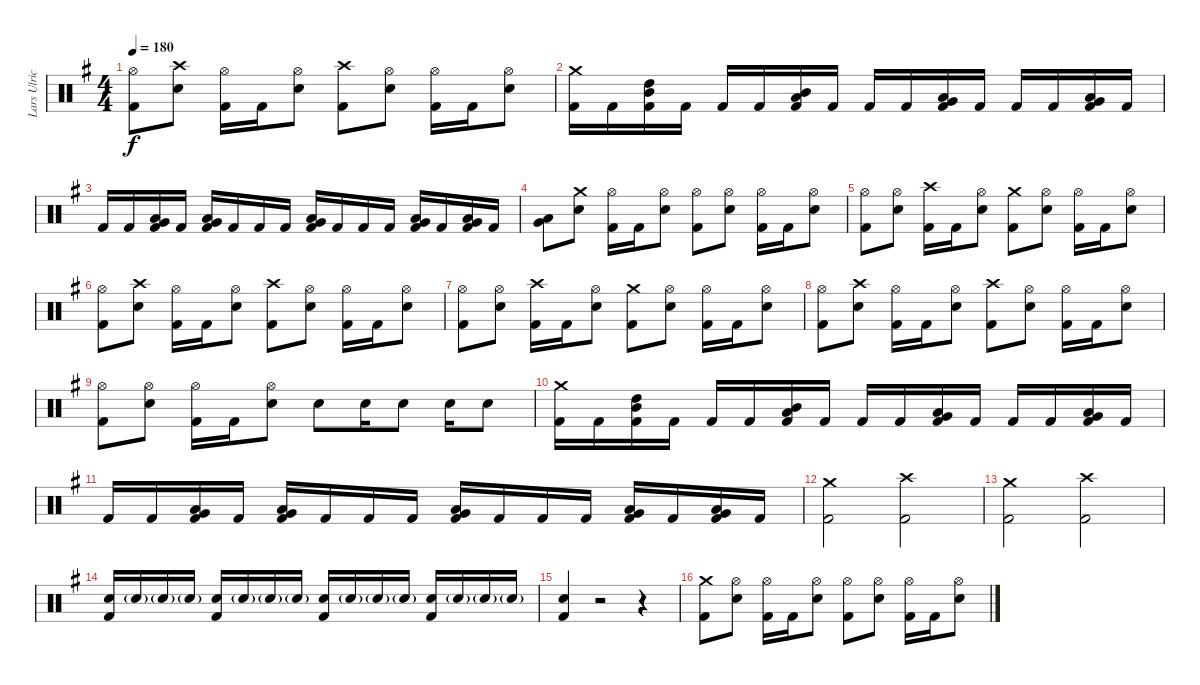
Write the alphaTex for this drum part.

\track ("Lars Ulrich" "Lars Ulric") {instrument percussion}
\staff {score}
\articulation defaults
\ts (4 4)
\tempo 180
\clef neutral
\ks eminor
("Hi-Hat (open)" "Kick (hit) 2").8{dy f} ("Crash high (hit)" "Snare (hit) 2").8 ("Hi-Hat (open)" "Kick (hit) 2").16 "Kick (hit) 2".16 ("Hi-Hat (open)" "Snare (hit) 2").8 ("Crash high (hit)" "Kick (hit) 2").8 ("Hi-Hat (open)" "Snare (hit) 2").8 ("Hi-Hat (open)" "Kick (hit) 2").16 "Kick (hit) 2".16 ("Hi-Hat (open)" "Snare (hit) 2").8 |
("Crash medium (hit)" "Kick (hit) 2").16 "Kick (hit) 2".16 ("High Tom (hit)" "Mid Tom (hit)" "Kick (hit) 2").16 "Kick (hit) 2".16 "Kick (hit) 2".16 "Kick (hit) 2".16 ("Mid Tom (hit)" "Low Tom (hit)" "Kick (hit) 2").16 "Kick (hit) 2".16 "Kick (hit) 2".16 "Kick (hit) 2".16 ("Low Tom (hit)" "Very Low Tom (hit)" "Kick (hit) 2").16 "Kick (hit) 2".16 "Kick (hit) 2".16 "Kick (hit) 2".16 ("Very Low Tom (hit)" "Low Floor Tom (hit)" "Kick (hit) 2").16 "Kick (hit) 2".16 |
"Kick (hit) 2".16 "Kick (hit) 2".16 ("Very Low Tom (hit)" "Low Floor Tom (hit)" "Kick (hit) 2").16 "Kick (hit) 2".16 ("Very Low Tom (hit)" "Low Floor Tom (hit)" "Kick (hit) 2").16 "Kick (hit) 2".16 "Kick (hit) 2".16 "Kick (hit) 2".16 ("Very Low Tom (hit)" "Low Floor Tom (hit)" "Kick (hit) 2").16 "Kick (hit) 2".16 "Kick (hit) 2".16 "Kick (hit) 2".16 ("Very Low Tom (hit)" "Low Floor Tom (hit)" "Kick (hit) 2").16 "Kick (hit) 2".16 ("Very Low Tom (hit)" "Low Floor Tom (hit)" "Kick (hit) 2").16 "Kick (hit) 2".16 |
("Very Low Tom (hit)" "Low Floor Tom (hit)").8 ("Crash medium (hit)" "Snare (hit) 2").8 ("Hi-Hat (open)" "Kick (hit) 2").16 "Kick (hit) 2".16 ("Hi-Hat (open)" "Snare (hit) 2").8 ("Hi-Hat (open)" "Kick (hit) 2").8 ("Hi-Hat (open)" "Snare (hit) 2").8 ("Hi-Hat (open)" "Kick (hit) 2").16 "Kick (hit) 2".16 ("Hi-Hat (open)" "Snare (hit) 2").8 |
("Hi-Hat (open)" "Kick (hit) 2").8 ("Hi-Hat (open)" "Snare (hit) 2").8 ("Crash high (hit)" "Kick (hit) 2").16 "Kick (hit) 2".16 ("Hi-Hat (open)" "Snare (hit) 2").8 ("Crash medium (hit)" "Kick (hit) 2").8 ("Hi-Hat (open)" "Snare (hit) 2").8 ("Hi-Hat (open)" "Kick (hit) 2").16 "Kick (hit) 2".16 ("Hi-Hat (open)" "Snare (hit) 2").8 |
("Hi-Hat (open)" "Kick (hit) 2").8 ("Crash high (hit)" "Snare (hit) 2").8 ("Hi-Hat (open)" "Kick (hit) 2").16 "Kick (hit) 2".16 ("Hi-Hat (open)" "Snare (hit) 2").8 ("Crash high (hit)" "Kick (hit) 2").8 ("Hi-Hat (open)" "Snare (hit) 2").8 ("Hi-Hat (open)" "Kick (hit) 2").16 "Kick (hit) 2".16 ("Hi-Hat (open)" "Snare (hit) 2").8 |
("Hi-Hat (open)" "Kick (hit) 2").8 ("Hi-Hat (open)" "Snare (hit) 2").8 ("Crash high (hit)" "Kick (hit) 2").16 "Kick (hit) 2".16 ("Hi-Hat (open)" "Snare (hit) 2").8 ("Crash medium (hit)" "Kick (hit) 2").8 ("Hi-Hat (open)" "Snare (hit) 2").8 ("Hi-Hat (open)" "Kick (hit) 2").16 "Kick (hit) 2".16 ("Hi-Hat (open)" "Snare (hit) 2").8 |
("Hi-Hat (open)" "Kick (hit) 2").8 ("Crash high (hit)" "Snare (hit) 2").8 ("Hi-Hat (open)" "Kick (hit) 2").16 "Kick (hit) 2".16 ("Hi-Hat (open)" "Snare (hit) 2").8 ("Crash high (hit)" "Kick (hit) 2").8 ("Hi-Hat (open)" "Snare (hit) 2").8 ("Hi-Hat (open)" "Kick (hit) 2").16 "Kick (hit) 2".16 ("Hi-Hat (open)" "Snare (hit) 2").8 |
("Hi-Hat (open)" "Kick (hit) 2").8 ("Hi-Hat (open)" "Snare (hit) 2").8 ("Hi-Hat (open)" "Kick (hit) 2").16 "Kick (hit) 2".16 ("Hi-Hat (open)" "Snare (hit) 2").8 "Snare (hit) 2".8 "Snare (hit) 2".16 "Snare (hit) 2".8 "Snare (hit) 2".16 "Snare (hit) 2".8 |
("Crash medium (hit)" "Kick (hit) 2").16 "Kick (hit) 2".16 ("High Tom (hit)" "Mid Tom (hit)" "Kick (hit) 2").16 "Kick (hit) 2".16 "Kick (hit) 2".16 "Kick (hit) 2".16 ("Mid Tom (hit)" "Low Tom (hit)" "Kick (hit) 2").16 "Kick (hit) 2".16 "Kick (hit) 2".16 "Kick (hit) 2".16 ("Low Tom (hit)" "Very Low Tom (hit)" "Kick (hit) 2").16 "Kick (hit) 2".16 "Kick (hit) 2".16 "Kick (hit) 2".16 ("Very Low Tom (hit)" "Low Floor Tom (hit)" "Kick (hit) 2").16 "Kick (hit) 2".16 |
"Kick (hit) 2".16 "Kick (hit) 2".16 ("Very Low Tom (hit)" "Low Floor Tom (hit)" "Kick (hit) 2").16 "Kick (hit) 2".16 ("Very Low Tom (hit)" "Low Floor Tom (hit)" "Kick (hit) 2").16 "Kick (hit) 2".16 "Kick (hit) 2".16 "Kick (hit) 2".16 ("Very Low Tom (hit)" "Low Floor Tom (hit)" "Kick (hit) 2").16 "Kick (hit) 2".16 "Kick (hit) 2".16 "Kick (hit) 2".16 ("Very Low Tom (hit)" "Low Floor Tom (hit)" "Kick (hit) 2").16 "Kick (hit) 2".16 ("Very Low Tom (hit)" "Low Floor Tom (hit)" "Kick (hit) 2").16 "Kick (hit) 2".16 |
("Crash medium (hit)" "Kick (hit) 2").2 ("Crash high (hit)" "Kick (hit) 2").2 |
("Crash medium (hit)" "Kick (hit) 2").2 ("Crash high (hit)" "Kick (hit) 2").2 |
("Snare (hit) 2" "Kick (hit) 2").16 "Snare (hit) 2"{g}.16 "Snare (hit) 2"{g}.16 "Snare (hit) 2"{g}.16 ("Snare (hit) 2" "Kick (hit) 2").16 "Snare (hit) 2"{g}.16 "Snare (hit) 2"{g}.16 "Snare (hit) 2"{g}.16 ("Snare (hit) 2" "Kick (hit) 2").16 "Snare (hit) 2"{g}.16 "Snare (hit) 2"{g}.16 "Snare (hit) 2"{g}.16 ("Snare (hit) 2" "Kick (hit) 2").16 "Snare (hit) 2"{g}.16 "Snare (hit) 2"{g}.16 "Snare (hit) 2"{g}.16 |
("Snare (hit) 2" "Kick (hit) 2").4 r.2 r.4 |
("Crash medium (hit)" "Kick (hit) 2").8 ("Hi-Hat (open)" "Snare (hit) 2").8 ("Hi-Hat (open)" "Kick (hit) 2").16 "Kick (hit) 2".16 ("Hi-Hat (open)" "Snare (hit) 2").8 ("Hi-Hat (open)" "Kick (hit) 2").8 ("Hi-Hat (open)" "Snare (hit) 2").8 ("Hi-Hat (open)" "Kick (hit) 2").16 "Kick (hit) 2".16 ("Hi-Hat (open)" "Snare (hit) 2").8
